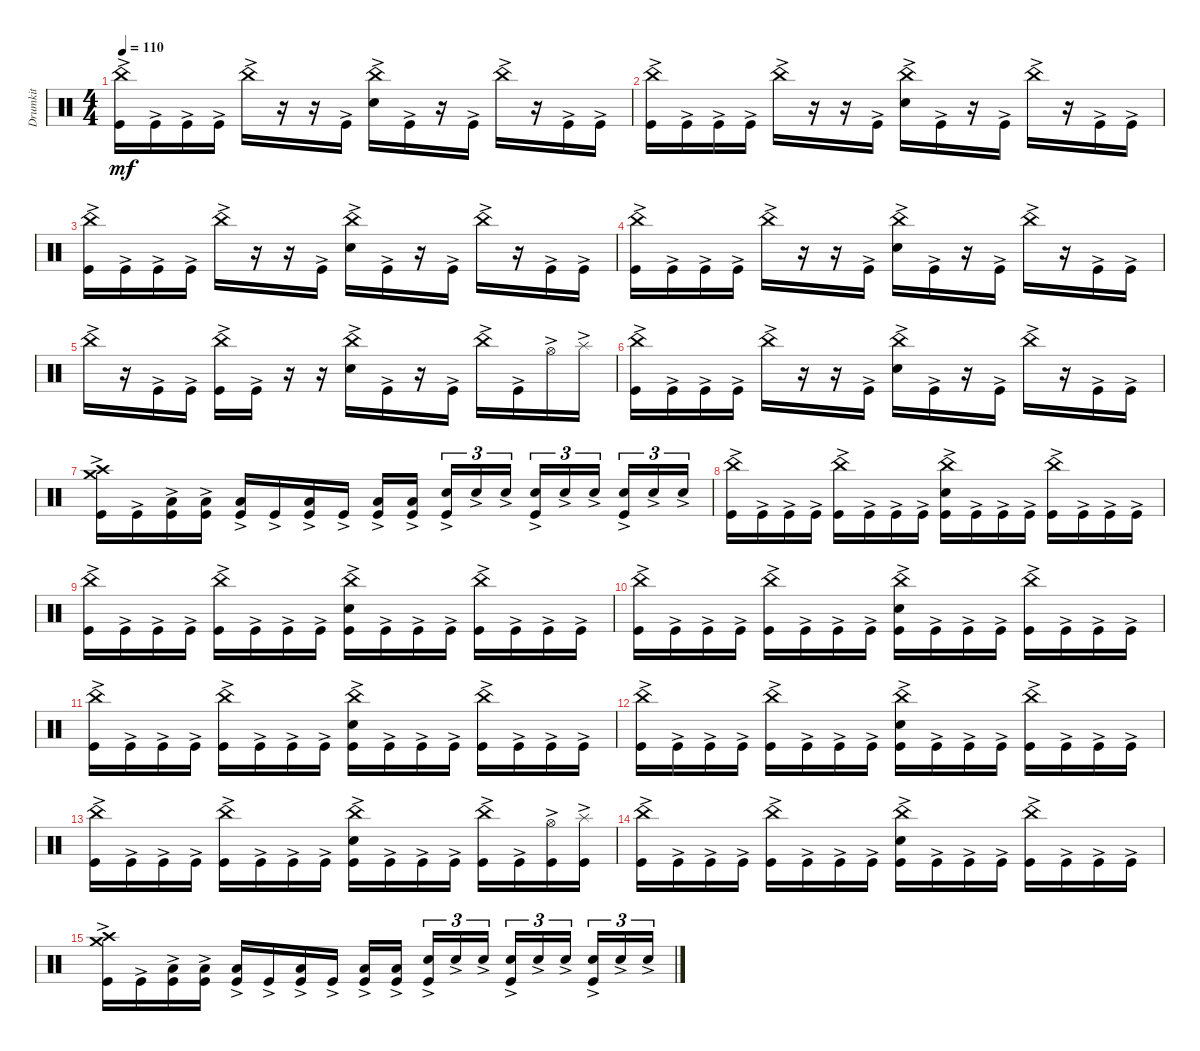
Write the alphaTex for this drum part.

\track ("Drumkit" "Drumkit") {instrument percussion}
\staff {score}
\articulation defaults
\ts (4 4)
\tempo 110
\clef neutral
\ks c
("China (hit)"{ac} "Kick (hit)"{ac}).16{dy mf} "Kick (hit)"{ac}.16 "Kick (hit)"{ac}.16 "Kick (hit)"{ac}.16 "China (hit)"{ac}.16 r.16 r.16 "Kick (hit)"{ac}.16 ("China (hit)"{ac} "Snare (hit) 2"{ac}).16 "Kick (hit)"{ac}.16 r.16 "Kick (hit)"{ac}.16 "China (hit)"{ac}.16 r.16 "Kick (hit)"{ac}.16 "Kick (hit)"{ac}.16 |
("China (hit)"{ac} "Kick (hit)"{ac}).16 "Kick (hit)"{ac}.16 "Kick (hit)"{ac}.16 "Kick (hit)"{ac}.16 "China (hit)"{ac}.16 r.16 r.16 "Kick (hit)"{ac}.16 ("China (hit)"{ac} "Snare (hit) 2"{ac}).16 "Kick (hit)"{ac}.16 r.16 "Kick (hit)"{ac}.16 "China (hit)"{ac}.16 r.16 "Kick (hit)"{ac}.16 "Kick (hit)"{ac}.16 |
("China (hit)"{ac} "Kick (hit)"{ac}).16 "Kick (hit)"{ac}.16 "Kick (hit)"{ac}.16 "Kick (hit)"{ac}.16 "China (hit)"{ac}.16 r.16 r.16 "Kick (hit)"{ac}.16 ("China (hit)"{ac} "Snare (hit) 2"{ac}).16 "Kick (hit)"{ac}.16 r.16 "Kick (hit)"{ac}.16 "China (hit)"{ac}.16 r.16 "Kick (hit)"{ac}.16 "Kick (hit)"{ac}.16 |
("China (hit)"{ac} "Kick (hit)"{ac}).16 "Kick (hit)"{ac}.16 "Kick (hit)"{ac}.16 "Kick (hit)"{ac}.16 "China (hit)"{ac}.16 r.16 r.16 "Kick (hit)"{ac}.16 ("China (hit)"{ac} "Snare (hit) 2"{ac}).16 "Kick (hit)"{ac}.16 r.16 "Kick (hit)"{ac}.16 "China (hit)"{ac}.16 r.16 "Kick (hit)"{ac}.16 "Kick (hit)"{ac}.16 |
"China (hit)"{ac}.16 r.16 "Kick (hit)"{ac}.16 "Kick (hit)"{ac}.16 ("China (hit)"{ac} "Kick (hit)"{ac}).16 "Kick (hit)"{ac}.16 r.16 r.16 ("China (hit)"{ac} "Snare (hit) 2"{ac}).16 "Kick (hit)"{ac}.16 r.16 "Kick (hit)"{ac}.16 "China (hit)"{ac}.16 "Kick (hit)"{ac}.16 "Hi-Hat (open)"{ac}.16 "Splash (hit)"{ac}.16 |
("China (hit)"{ac} "Kick (hit)"{ac}).16 "Kick (hit)"{ac}.16 "Kick (hit)"{ac}.16 "Kick (hit)"{ac}.16 "China (hit)"{ac}.16 r.16 r.16 "Kick (hit)"{ac}.16 ("China (hit)"{ac} "Snare (hit) 2"{ac}).16 "Kick (hit)"{ac}.16 r.16 "Kick (hit)"{ac}.16 "China (hit)"{ac}.16 r.16 "Kick (hit)"{ac}.16 "Kick (hit)"{ac}.16 |
("Crash high (hit)"{ac} "Crash medium (hit)"{ac} "Kick (hit)"{ac}).16 "Kick (hit)"{ac}.16 ("Low Floor Tom (hit)"{ac} "Kick (hit)"{ac}).16 ("Low Floor Tom (hit)"{ac} "Kick (hit)"{ac}).16 ("Low Floor Tom (hit)"{ac} "Kick (hit)"{ac}).16 "Kick (hit)"{ac}.16 ("Low Floor Tom (hit)"{ac} "Kick (hit)"{ac}).16 "Kick (hit)"{ac}.16 ("Low Floor Tom (hit)"{ac} "Kick (hit)"{ac}).16 ("Low Floor Tom (hit)"{ac} "Kick (hit)"{ac}).16 ("Snare (hit) 2"{ac} "Kick (hit)"{ac}).16{tu (3 2)} "Snare (hit) 2"{ac}.16{tu (3 2)} "Snare (hit) 2"{ac}.16{tu (3 2)} ("Snare (hit) 2"{ac} "Kick (hit)"{ac}).16{tu (3 2)} "Snare (hit) 2"{ac}.16{tu (3 2)} "Snare (hit) 2"{ac}.16{tu (3 2)} ("Snare (hit) 2"{ac} "Kick (hit)"{ac}).16{tu (3 2)} "Snare (hit) 2"{ac}.16{tu (3 2)} "Snare (hit) 2"{ac}.16{tu (3 2)} |
("China (hit)"{ac} "Kick (hit)"{ac}).16 "Kick (hit)"{ac}.16 "Kick (hit)"{ac}.16 "Kick (hit)"{ac}.16 ("China (hit)"{ac} "Kick (hit)"{ac}).16 "Kick (hit)"{ac}.16 "Kick (hit)"{ac}.16 "Kick (hit)"{ac}.16 ("China (hit)"{ac} "Snare (hit) 2"{ac} "Kick (hit)"{ac}).16 "Kick (hit)"{ac}.16 "Kick (hit)"{ac}.16 "Kick (hit)"{ac}.16 ("China (hit)"{ac} "Kick (hit)"{ac}).16 "Kick (hit)"{ac}.16 "Kick (hit)"{ac}.16 "Kick (hit)"{ac}.16 |
("China (hit)"{ac} "Kick (hit)"{ac}).16 "Kick (hit)"{ac}.16 "Kick (hit)"{ac}.16 "Kick (hit)"{ac}.16 ("China (hit)"{ac} "Kick (hit)"{ac}).16 "Kick (hit)"{ac}.16 "Kick (hit)"{ac}.16 "Kick (hit)"{ac}.16 ("China (hit)"{ac} "Snare (hit) 2"{ac} "Kick (hit)"{ac}).16 "Kick (hit)"{ac}.16 "Kick (hit)"{ac}.16 "Kick (hit)"{ac}.16 ("China (hit)"{ac} "Kick (hit)"{ac}).16 "Kick (hit)"{ac}.16 "Kick (hit)"{ac}.16 "Kick (hit)"{ac}.16 |
("China (hit)"{ac} "Kick (hit)"{ac}).16 "Kick (hit)"{ac}.16 "Kick (hit)"{ac}.16 "Kick (hit)"{ac}.16 ("China (hit)"{ac} "Kick (hit)"{ac}).16 "Kick (hit)"{ac}.16 "Kick (hit)"{ac}.16 "Kick (hit)"{ac}.16 ("China (hit)"{ac} "Snare (hit) 2"{ac} "Kick (hit)"{ac}).16 "Kick (hit)"{ac}.16 "Kick (hit)"{ac}.16 "Kick (hit)"{ac}.16 ("China (hit)"{ac} "Kick (hit)"{ac}).16 "Kick (hit)"{ac}.16 "Kick (hit)"{ac}.16 "Kick (hit)"{ac}.16 |
("China (hit)"{ac} "Kick (hit)"{ac}).16 "Kick (hit)"{ac}.16 "Kick (hit)"{ac}.16 "Kick (hit)"{ac}.16 ("China (hit)"{ac} "Kick (hit)"{ac}).16 "Kick (hit)"{ac}.16 "Kick (hit)"{ac}.16 "Kick (hit)"{ac}.16 ("China (hit)"{ac} "Snare (hit) 2"{ac} "Kick (hit)"{ac}).16 "Kick (hit)"{ac}.16 "Kick (hit)"{ac}.16 "Kick (hit)"{ac}.16 ("China (hit)"{ac} "Kick (hit)"{ac}).16 "Kick (hit)"{ac}.16 "Kick (hit)"{ac}.16 "Kick (hit)"{ac}.16 |
("China (hit)"{ac} "Kick (hit)"{ac}).16 "Kick (hit)"{ac}.16 "Kick (hit)"{ac}.16 "Kick (hit)"{ac}.16 ("China (hit)"{ac} "Kick (hit)"{ac}).16 "Kick (hit)"{ac}.16 "Kick (hit)"{ac}.16 "Kick (hit)"{ac}.16 ("China (hit)"{ac} "Snare (hit) 2"{ac} "Kick (hit)"{ac}).16 "Kick (hit)"{ac}.16 "Kick (hit)"{ac}.16 "Kick (hit)"{ac}.16 ("China (hit)"{ac} "Kick (hit)"{ac}).16 "Kick (hit)"{ac}.16 "Kick (hit)"{ac}.16 "Kick (hit)"{ac}.16 |
("China (hit)"{ac} "Kick (hit)"{ac}).16 "Kick (hit)"{ac}.16 "Kick (hit)"{ac}.16 "Kick (hit)"{ac}.16 ("China (hit)"{ac} "Kick (hit)"{ac}).16 "Kick (hit)"{ac}.16 "Kick (hit)"{ac}.16 "Kick (hit)"{ac}.16 ("China (hit)"{ac} "Snare (hit) 2"{ac} "Kick (hit)"{ac}).16 "Kick (hit)"{ac}.16 "Kick (hit)"{ac}.16 "Kick (hit)"{ac}.16 ("China (hit)"{ac} "Kick (hit)"{ac}).16 "Kick (hit)"{ac}.16 ("Hi-Hat (open)"{ac} "Kick (hit)"{ac}).16 ("Splash (hit)"{ac} "Kick (hit)"{ac}).16 |
("China (hit)"{ac} "Kick (hit)"{ac}).16 "Kick (hit)"{ac}.16 "Kick (hit)"{ac}.16 "Kick (hit)"{ac}.16 ("China (hit)"{ac} "Kick (hit)"{ac}).16 "Kick (hit)"{ac}.16 "Kick (hit)"{ac}.16 "Kick (hit)"{ac}.16 ("China (hit)"{ac} "Snare (hit) 2"{ac} "Kick (hit)"{ac}).16 "Kick (hit)"{ac}.16 "Kick (hit)"{ac}.16 "Kick (hit)"{ac}.16 ("China (hit)"{ac} "Kick (hit)"{ac}).16 "Kick (hit)"{ac}.16 "Kick (hit)"{ac}.16 "Kick (hit)"{ac}.16 |
("Crash high (hit)"{ac} "Crash medium (hit)"{ac} "Kick (hit)"{ac}).16 "Kick (hit)"{ac}.16 ("Low Floor Tom (hit)"{ac} "Kick (hit)"{ac}).16 ("Low Floor Tom (hit)"{ac} "Kick (hit)"{ac}).16 ("Low Floor Tom (hit)"{ac} "Kick (hit)"{ac}).16 "Kick (hit)"{ac}.16 ("Low Floor Tom (hit)"{ac} "Kick (hit)"{ac}).16 "Kick (hit)"{ac}.16 ("Low Floor Tom (hit)"{ac} "Kick (hit)"{ac}).16 ("Low Floor Tom (hit)"{ac} "Kick (hit)"{ac}).16 ("Snare (hit) 2"{ac} "Kick (hit)"{ac}).16{tu (3 2)} "Snare (hit) 2"{ac}.16{tu (3 2)} "Snare (hit) 2"{ac}.16{tu (3 2)} ("Snare (hit) 2"{ac} "Kick (hit)"{ac}).16{tu (3 2)} "Snare (hit) 2"{ac}.16{tu (3 2)} "Snare (hit) 2"{ac}.16{tu (3 2)} ("Snare (hit) 2"{ac} "Kick (hit)"{ac}).16{tu (3 2)} "Snare (hit) 2"{ac}.16{tu (3 2)} "Snare (hit) 2"{ac}.16{tu (3 2)}
